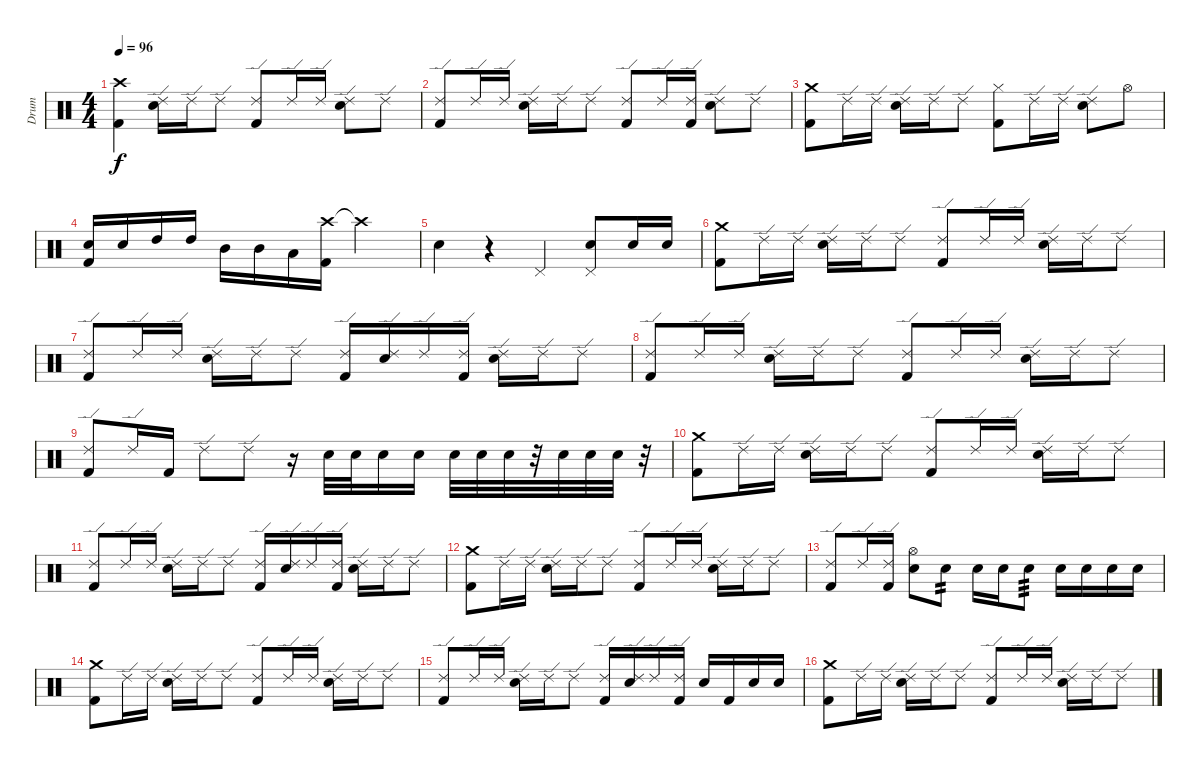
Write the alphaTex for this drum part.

\track ("Drum" "Drum") {instrument percussion}
\staff {score}
\articulation defaults
\ts (4 4)
\tempo 96
\clef neutral
\ks c
("Crash high (hit)" "Kick (hit) 2").4{dy f} ("Ride (edge) 2" "Electric Snare (hit)").16 "Ride (edge) 2".16 "Ride (edge) 2".8 ("Ride (edge) 2" "Kick (hit) 2").8 "Ride (edge) 2".16 "Ride (edge) 2".16 ("Ride (edge) 2" "Electric Snare (hit)").8 "Ride (edge) 2".8 |
("Ride (edge) 2" "Kick (hit) 2").8 "Ride (edge) 2".16 "Ride (edge) 2".16 ("Ride (edge) 2" "Electric Snare (hit)").16 "Ride (edge) 2".16 "Ride (edge) 2".8 ("Ride (edge) 2" "Kick (hit) 2").8 "Ride (edge) 2".16 ("Ride (edge) 2" "Kick (hit) 2").16 ("Ride (edge) 2" "Electric Snare (hit)").8 "Ride (edge) 2".8 |
("Crash medium (hit)" "Kick (hit) 2").8 "Ride (edge) 2".16 "Ride (edge) 2".16 ("Ride (edge) 2" "Electric Snare (hit)").16 "Ride (edge) 2".16 "Ride (edge) 2".8 ("Hi-Hat (closed)" "Kick (hit) 2").8 "Ride (edge) 2".16 "Ride (edge) 2".16 ("Ride (edge) 2" "Electric Snare (hit)").8 "Hi-Hat (open)".8 |
("Electric Snare (hit)" "Kick (hit) 2").16 "Electric Snare (hit)".16 "High Tom (hit)".16 "High Tom (hit)".16 "Mid Tom (hit)".16 "Mid Tom (hit)".16 "Low Floor Tom (hit)".16 ("Crash high (hit)" "Kick (hit) 2").16 "Crash high (hit)"{t}.2 |
"Electric Snare (hit)".4 r.4 "Pedal Hi-Hat (hit)".4 ("Electric Snare (hit)" "Pedal Hi-Hat (hit)").8 "Electric Snare (hit)".16 "Electric Snare (hit)".16 |
("Crash medium (hit)" "Kick (hit) 2").8 "Ride (edge) 2".16 "Ride (edge) 2".16 ("Ride (edge) 2" "Electric Snare (hit)").16 "Ride (edge) 2".16 "Ride (edge) 2".8 ("Ride (edge) 2" "Kick (hit) 2").8 "Ride (edge) 2".16 "Ride (edge) 2".16 ("Ride (edge) 2" "Electric Snare (hit)").16 "Ride (edge) 2".16 "Ride (edge) 2".8 |
("Ride (edge) 2" "Kick (hit) 2").8 "Ride (edge) 2".16 "Ride (edge) 2".16 ("Ride (edge) 2" "Electric Snare (hit)").16 "Ride (edge) 2".16 "Ride (edge) 2".8 ("Ride (edge) 2" "Kick (hit) 2").16 ("Ride (edge) 2" "Electric Snare (hit)").16 "Ride (edge) 2".16 ("Ride (edge) 2" "Kick (hit) 2").16 ("Ride (edge) 2" "Electric Snare (hit)").16 "Ride (edge) 2".16 "Ride (edge) 2".8 |
("Ride (edge) 2" "Kick (hit) 2").8 "Ride (edge) 2".16 "Ride (edge) 2".16 ("Ride (edge) 2" "Electric Snare (hit)").16 "Ride (edge) 2".16 "Ride (edge) 2".8 ("Ride (edge) 2" "Kick (hit) 2").8 "Ride (edge) 2".16 "Ride (edge) 2".16 ("Ride (edge) 2" "Electric Snare (hit)").16 "Ride (edge) 2".16 "Ride (edge) 2".8 |
("Ride (edge) 2" "Kick (hit) 2").8 "Ride (edge) 2".16 "Kick (hit) 2".16 "Ride (edge) 2".8 "Ride (edge) 2".8 r.16 "Electric Snare (hit)".32 "Electric Snare (hit)".32 "Electric Snare (hit)".16 "Electric Snare (hit)".16 "Electric Snare (hit)".32 "Electric Snare (hit)".32 "Electric Snare (hit)".32 r.32 "Electric Snare (hit)".32 "Electric Snare (hit)".32 "Electric Snare (hit)".32 r.32 |
("Crash medium (hit)" "Kick (hit) 2").8 "Ride (edge) 2".16 "Ride (edge) 2".16 ("Ride (edge) 2" "Electric Snare (hit)").16 "Ride (edge) 2".16 "Ride (edge) 2".8 ("Ride (edge) 2" "Kick (hit) 2").8 "Ride (edge) 2".16 "Ride (edge) 2".16 ("Ride (edge) 2" "Electric Snare (hit)").16 "Ride (edge) 2".16 "Ride (edge) 2".8 |
("Ride (edge) 2" "Kick (hit) 2").8 "Ride (edge) 2".16 "Ride (edge) 2".16 ("Ride (edge) 2" "Electric Snare (hit)").16 "Ride (edge) 2".16 "Ride (edge) 2".8 ("Ride (edge) 2" "Kick (hit) 2").16 ("Ride (edge) 2" "Electric Snare (hit)").16 "Ride (edge) 2".16 ("Ride (edge) 2" "Kick (hit) 2").16 ("Ride (edge) 2" "Electric Snare (hit)").16 "Ride (edge) 2".16 "Ride (edge) 2".8 |
("Crash medium (hit)" "Kick (hit) 2").8 "Ride (edge) 2".16 "Ride (edge) 2".16 ("Ride (edge) 2" "Electric Snare (hit)").16 "Ride (edge) 2".16 "Ride (edge) 2".8 ("Ride (edge) 2" "Kick (hit) 2").8 "Ride (edge) 2".16 "Ride (edge) 2".16 ("Ride (edge) 2" "Electric Snare (hit)").16 "Ride (edge) 2".16 "Ride (edge) 2".8 |
("Ride (edge) 2" "Kick (hit) 2").8 "Ride (edge) 2".16 ("Ride (edge) 2" "Kick (hit) 2").16 ("Hi-Hat (open)" "Electric Snare (hit)").8 "Electric Snare (hit)".8{tp 2} "Electric Snare (hit)".16 "Electric Snare (hit)".16 "Electric Snare (hit)".8{tp 3} "Electric Snare (hit)".16 "Electric Snare (hit)".16 "Electric Snare (hit)".16 "Electric Snare (hit)".16 |
("Crash medium (hit)" "Kick (hit) 2").8 "Ride (edge) 2".16 "Ride (edge) 2".16 ("Ride (edge) 2" "Electric Snare (hit)").16 "Ride (edge) 2".16 "Ride (edge) 2".8 ("Ride (edge) 2" "Kick (hit) 2").8 "Ride (edge) 2".16 "Ride (edge) 2".16 ("Ride (edge) 2" "Electric Snare (hit)").16 "Ride (edge) 2".16 "Ride (edge) 2".8 |
("Ride (edge) 2" "Kick (hit) 2").8 "Ride (edge) 2".16 "Ride (edge) 2".16 ("Ride (edge) 2" "Electric Snare (hit)").16 "Ride (edge) 2".16 "Ride (edge) 2".8 ("Ride (edge) 2" "Kick (hit) 2").16 ("Ride (edge) 2" "Electric Snare (hit)").16 "Ride (edge) 2".16 ("Ride (edge) 2" "Kick (hit) 2").16 "Electric Snare (hit)".16 "Kick (hit) 2".16 "Electric Snare (hit)".16 "Electric Snare (hit)".16 |
("Crash medium (hit)" "Kick (hit) 2").8 "Ride (edge) 2".16 "Ride (edge) 2".16 ("Ride (edge) 2" "Electric Snare (hit)").16 "Ride (edge) 2".16 "Ride (edge) 2".8 ("Ride (edge) 2" "Kick (hit) 2").8 "Ride (edge) 2".16 "Ride (edge) 2".16 ("Ride (edge) 2" "Electric Snare (hit)").16 "Ride (edge) 2".16 "Ride (edge) 2".8
